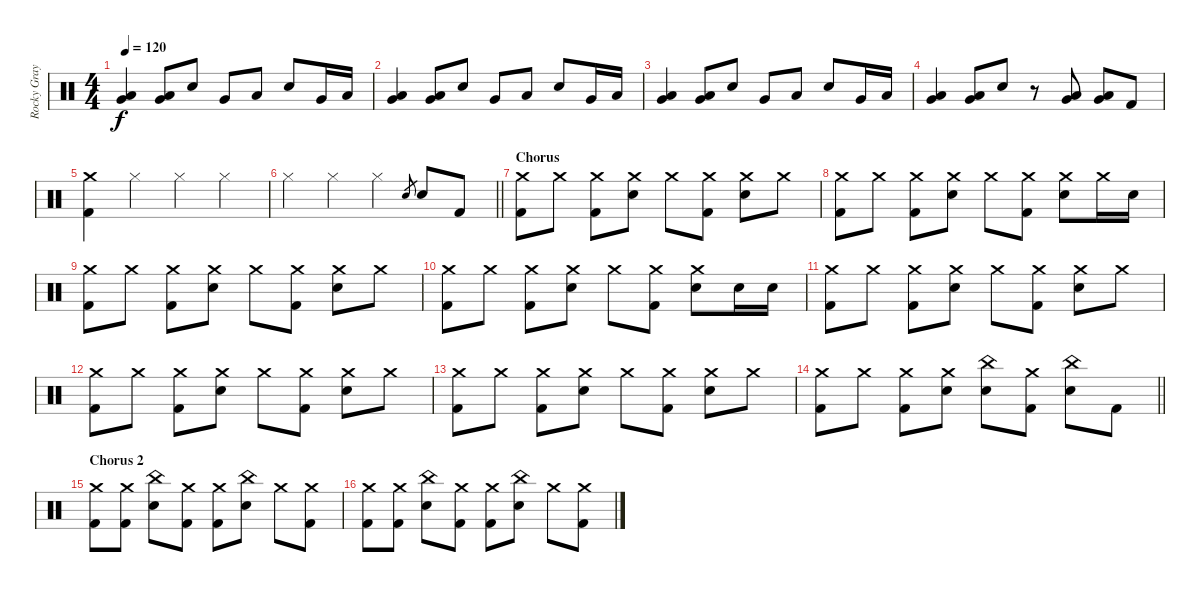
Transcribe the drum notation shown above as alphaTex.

\track ("Rocky Gray" "Rocky Gray") {instrument percussion}
\staff {score}
\articulation defaults
\ts (4 4)
\tempo 120
\clef neutral
\ks c
("Low Floor Tom (hit)" "Very Low Tom (hit)").4{dy f} ("Low Floor Tom (hit)" "Very Low Tom (hit)").8 "Electric Snare (hit)".8 "Very Low Tom (hit)".8 "Low Floor Tom (hit)".8 "Electric Snare (hit)".8 "Very Low Tom (hit)".16 "Low Floor Tom (hit)".16 |
("Low Floor Tom (hit)" "Very Low Tom (hit)").4 ("Low Floor Tom (hit)" "Very Low Tom (hit)").8 "Electric Snare (hit)".8 "Very Low Tom (hit)".8 "Low Floor Tom (hit)".8 "Electric Snare (hit)".8 "Very Low Tom (hit)".16 "Low Floor Tom (hit)".16 |
("Low Floor Tom (hit)" "Very Low Tom (hit)").4 ("Low Floor Tom (hit)" "Very Low Tom (hit)").8 "Electric Snare (hit)".8 "Very Low Tom (hit)".8 "Low Floor Tom (hit)".8 "Electric Snare (hit)".8 "Very Low Tom (hit)".16 "Low Floor Tom (hit)".16 |
("Low Floor Tom (hit)" "Very Low Tom (hit)").4 ("Low Floor Tom (hit)" "Very Low Tom (hit)").8 "Electric Snare (hit)".8 r.8 ("Very Low Tom (hit)" "Low Tom (hit)").8 ("Low Floor Tom (hit)" "Very Low Tom (hit)").8 "Kick (hit) 2".8 |
("Crash medium (hit)" "Kick (hit) 2").4 "Hi-Hat (closed)".4 "Hi-Hat (closed)".4 "Hi-Hat (closed)".4 |
\barLineRight lightlight "Hi-Hat (closed)".4 "Hi-Hat (closed)".4 "Hi-Hat (closed)".4 "Electric Snare (hit)".8{gr} "Electric Snare (hit)".8 "Kick (hit) 2".8
|
\section ("" "Chorus")
("Crash medium (hit)" "Kick (hit) 2").8 "Crash medium (hit)".8 ("Crash medium (hit)" "Kick (hit) 2").8 ("Crash medium (hit)" "Electric Snare (hit)").8 "Crash medium (hit)".8 ("Crash medium (hit)" "Kick (hit) 2").8 ("Crash medium (hit)" "Electric Snare (hit)").8 "Crash medium (hit)".8 |
("Crash medium (hit)" "Kick (hit) 2").8 "Crash medium (hit)".8 ("Crash medium (hit)" "Kick (hit) 2").8 ("Crash medium (hit)" "Electric Snare (hit)").8 "Crash medium (hit)".8 ("Crash medium (hit)" "Kick (hit) 2").8 ("Crash medium (hit)" "Electric Snare (hit)").8 "Crash medium (hit)".16 "Electric Snare (hit)".16 |
("Crash medium (hit)" "Kick (hit) 2").8 "Crash medium (hit)".8 ("Crash medium (hit)" "Kick (hit) 2").8 ("Crash medium (hit)" "Electric Snare (hit)").8 "Crash medium (hit)".8 ("Crash medium (hit)" "Kick (hit) 2").8 ("Crash medium (hit)" "Electric Snare (hit)").8 "Crash medium (hit)".8 |
("Crash medium (hit)" "Kick (hit) 2").8 "Crash medium (hit)".8 ("Crash medium (hit)" "Kick (hit) 2").8 ("Crash medium (hit)" "Electric Snare (hit)").8 "Crash medium (hit)".8 ("Crash medium (hit)" "Kick (hit) 2").8 ("Crash medium (hit)" "Electric Snare (hit)").8 "Electric Snare (hit)".16 "Electric Snare (hit)".16 |
("Crash medium (hit)" "Kick (hit) 2").8 "Crash medium (hit)".8 ("Crash medium (hit)" "Kick (hit) 2").8 ("Crash medium (hit)" "Electric Snare (hit)").8 "Crash medium (hit)".8 ("Crash medium (hit)" "Kick (hit) 2").8 ("Crash medium (hit)" "Electric Snare (hit)").8 "Crash medium (hit)".8 |
("Crash medium (hit)" "Kick (hit) 2").8 "Crash medium (hit)".8 ("Crash medium (hit)" "Kick (hit) 2").8 ("Crash medium (hit)" "Electric Snare (hit)").8 "Crash medium (hit)".8 ("Crash medium (hit)" "Kick (hit) 2").8 ("Crash medium (hit)" "Electric Snare (hit)").8 "Crash medium (hit)".8 |
("Crash medium (hit)" "Kick (hit) 2").8 "Crash medium (hit)".8 ("Crash medium (hit)" "Kick (hit) 2").8 ("Crash medium (hit)" "Electric Snare (hit)").8 "Crash medium (hit)".8 ("Crash medium (hit)" "Kick (hit) 2").8 ("Crash medium (hit)" "Electric Snare (hit)").8 "Crash medium (hit)".8 |
\barLineRight lightlight
("Crash medium (hit)" "Kick (hit) 2").8 "Crash medium (hit)".8 ("Crash medium (hit)" "Kick (hit) 2").8 ("Crash medium (hit)" "Electric Snare (hit)").8 ("China (hit)" "Electric Snare (hit)").8 ("Crash medium (hit)" "Kick (hit) 2").8 ("China (hit)" "Electric Snare (hit)").8 "Kick (hit) 2".8 |
\section ("" "Chorus 2")
("Crash medium (hit)" "Kick (hit) 2").8 ("Crash medium (hit)" "Kick (hit) 2").8 ("China (hit)" "Electric Snare (hit)").8 ("Crash medium (hit)" "Kick (hit) 2").8 ("Crash medium (hit)" "Kick (hit) 2").8 ("China (hit)" "Electric Snare (hit)").8 "Crash medium (hit)".8 ("Crash medium (hit)" "Kick (hit) 2").8 |
("Crash medium (hit)" "Kick (hit) 2").8 ("Crash medium (hit)" "Kick (hit) 2").8 ("China (hit)" "Electric Snare (hit)").8 ("Crash medium (hit)" "Kick (hit) 2").8 ("Crash medium (hit)" "Kick (hit) 2").8 ("China (hit)" "Electric Snare (hit)").8 "Crash medium (hit)".8 ("Crash medium (hit)" "Kick (hit) 2").8
